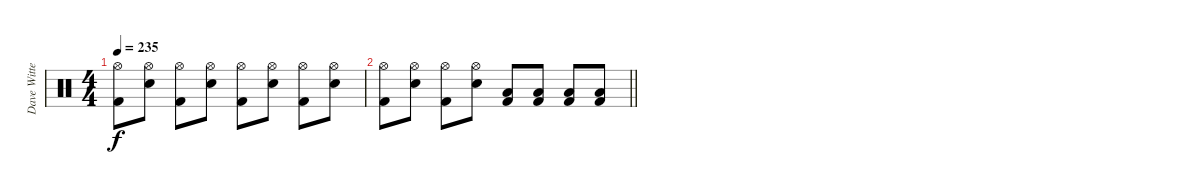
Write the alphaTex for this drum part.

\track ("Dave Witte" "Dave Witte") {instrument percussion}
\staff {score}
\articulation defaults
\ts (4 4)
\tempo 235
\clef neutral
\ks c
("Hi-Hat (open)" "Kick (hit) 2").8{dy f} ("Hi-Hat (open)" "Electric Snare (hit)").8 ("Hi-Hat (open)" "Kick (hit) 2").8 ("Hi-Hat (open)" "Electric Snare (hit)").8 ("Hi-Hat (open)" "Kick (hit) 2").8 ("Hi-Hat (open)" "Electric Snare (hit)").8 ("Hi-Hat (open)" "Kick (hit) 2").8 ("Hi-Hat (open)" "Electric Snare (hit)").8 |
\barLineRight lightlight
("Hi-Hat (open)" "Kick (hit) 2").8 ("Hi-Hat (open)" "Electric Snare (hit)").8 ("Hi-Hat (open)" "Kick (hit) 2").8 ("Hi-Hat (open)" "Electric Snare (hit)").8 ("Low Floor Tom (hit)" "Kick (hit) 2").8 ("Low Floor Tom (hit)" "Kick (hit) 2").8 ("Low Floor Tom (hit)" "Kick (hit) 2").8 ("Low Floor Tom (hit)" "Kick (hit) 2").8
